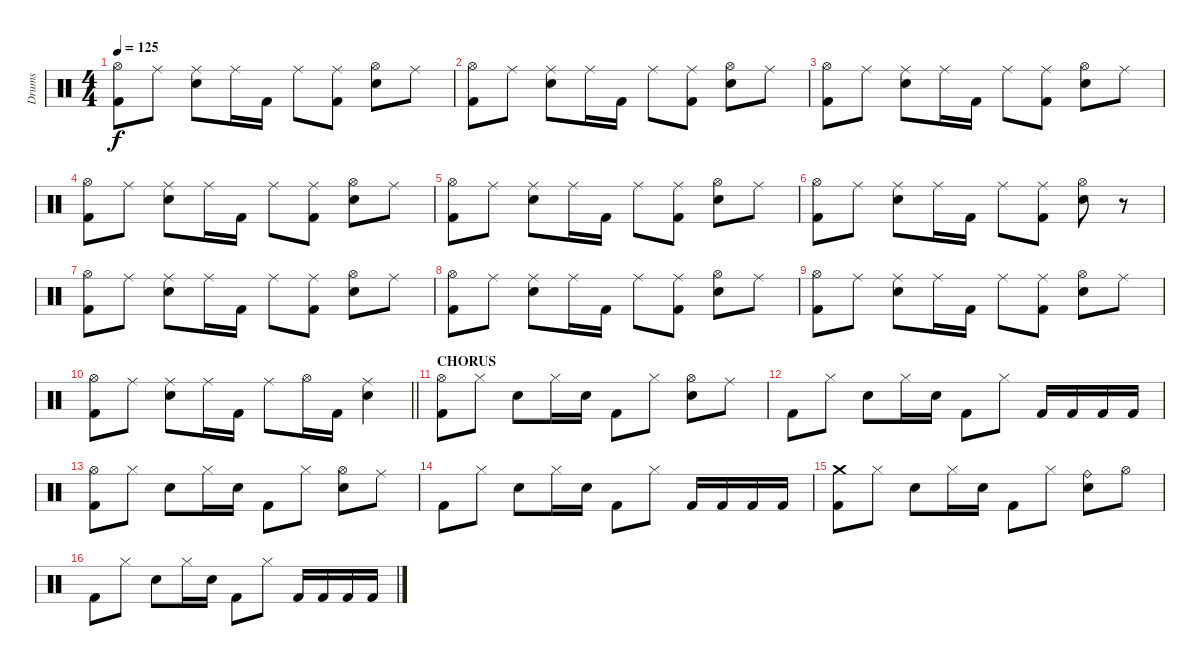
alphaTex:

\track ("Drums" "Drums") {instrument percussion}
\staff {score}
\articulation defaults
\ts (4 4)
\tempo 125
\clef neutral
\ks c
("Hi-Hat (open)" "Kick (hit) 2").8{dy f} "Ride (middle)".8 ("Ride (middle)" "Snare (hit) 2").8 "Ride (middle)".16 "Kick (hit) 2".16 "Ride (middle)".8 ("Ride (middle)" "Kick (hit) 2").8 ("Hi-Hat (open)" "Snare (hit) 2").8 "Ride (middle)".8 |
("Hi-Hat (open)" "Kick (hit) 2").8 "Ride (middle)".8 ("Ride (middle)" "Snare (hit) 2").8 "Ride (middle)".16 "Kick (hit) 2".16 "Ride (middle)".8 ("Ride (middle)" "Kick (hit) 2").8 ("Hi-Hat (open)" "Snare (hit) 2").8 "Ride (middle)".8 |
("Hi-Hat (open)" "Kick (hit) 2").8 "Ride (middle)".8 ("Ride (middle)" "Snare (hit) 2").8 "Ride (middle)".16 "Kick (hit) 2".16 "Ride (middle)".8 ("Ride (middle)" "Kick (hit) 2").8 ("Hi-Hat (open)" "Snare (hit) 2").8 "Ride (middle)".8 |
("Hi-Hat (open)" "Kick (hit) 2").8 "Ride (middle)".8 ("Ride (middle)" "Snare (hit) 2").8 "Ride (middle)".16 "Kick (hit) 2".16 "Ride (middle)".8 ("Ride (middle)" "Kick (hit) 2").8 ("Hi-Hat (open)" "Snare (hit) 2").8 "Ride (middle)".8 |
("Hi-Hat (open)" "Kick (hit) 2").8 "Ride (middle)".8 ("Ride (middle)" "Snare (hit) 2").8 "Ride (middle)".16 "Kick (hit) 2".16 "Ride (middle)".8 ("Ride (middle)" "Kick (hit) 2").8 ("Hi-Hat (open)" "Snare (hit) 2").8 "Ride (middle)".8 |
("Hi-Hat (open)" "Kick (hit) 2").8 "Ride (middle)".8 ("Ride (middle)" "Snare (hit) 2").8 "Ride (middle)".16 "Kick (hit) 2".16 "Ride (middle)".8 ("Ride (middle)" "Kick (hit) 2").8 ("Hi-Hat (open)" "Snare (hit) 2").8 r.8 |
("Hi-Hat (open)" "Kick (hit) 2").8 "Ride (middle)".8 ("Ride (middle)" "Snare (hit) 2").8 "Ride (middle)".16 "Kick (hit) 2".16 "Ride (middle)".8 ("Ride (middle)" "Kick (hit) 2").8 ("Hi-Hat (open)" "Snare (hit) 2").8 "Ride (middle)".8 |
("Hi-Hat (open)" "Kick (hit) 2").8 "Ride (middle)".8 ("Ride (middle)" "Snare (hit) 2").8 "Ride (middle)".16 "Kick (hit) 2".16 "Ride (middle)".8 ("Ride (middle)" "Kick (hit) 2").8 ("Hi-Hat (open)" "Snare (hit) 2").8 "Ride (middle)".8 |
("Hi-Hat (open)" "Kick (hit) 2").8 "Ride (middle)".8 ("Ride (middle)" "Snare (hit) 2").8 "Ride (middle)".16 "Kick (hit) 2".16 "Ride (middle)".8 ("Ride (middle)" "Kick (hit) 2").8 ("Hi-Hat (open)" "Snare (hit) 2").8 "Ride (middle)".8 |
\barLineRight lightlight
("Hi-Hat (open)" "Kick (hit) 2").8 "Ride (middle)".8 ("Ride (middle)" "Electric Snare (hit)").8 "Ride (middle)".16 "Kick (hit) 2".16 "Ride (middle)".8 "Hi-Hat (open)".16 "Kick (hit) 2".16 ("Ride (middle)" "Electric Snare (hit)").4 |
\section ("" "CHORUS")
("Hi-Hat (open)" "Kick (hit) 2").8 "Hi-Hat (closed)".8 "Snare (hit) 2".8 "Hi-Hat (closed)".16 "Snare (hit) 2".16 "Kick (hit) 2".8 "Hi-Hat (closed)".8 ("Hi-Hat (open)" "Snare (hit) 2").8 "Ride (middle)".8 |
"Kick (hit) 2".8 "Hi-Hat (closed)".8 "Snare (hit) 2".8 "Hi-Hat (closed)".16 "Snare (hit) 2".16 "Kick (hit) 2".8 "Hi-Hat (closed)".8 "Kick (hit) 2".16 "Kick (hit) 2".16 "Kick (hit) 2".16 "Kick (hit) 2".16 |
("Hi-Hat (open)" "Kick (hit) 2").8 "Hi-Hat (closed)".8 "Snare (hit) 2".8 "Hi-Hat (closed)".16 "Snare (hit) 2".16 "Kick (hit) 2".8 "Hi-Hat (closed)".8 ("Hi-Hat (open)" "Snare (hit) 2").8 "Ride (middle)".8 |
"Kick (hit) 2".8 "Hi-Hat (closed)".8 "Snare (hit) 2".8 "Hi-Hat (closed)".16 "Snare (hit) 2".16 "Kick (hit) 2".8 "Hi-Hat (closed)".8 "Kick (hit) 2".16 "Kick (hit) 2".16 "Kick (hit) 2".16 "Kick (hit) 2".16 |
("Crash medium (hit)" "Kick (hit) 2").8 "Hi-Hat (closed)".8 "Electric Snare (hit)".8 "Hi-Hat (closed)".16 "Electric Snare (hit)".16 "Kick (hit) 2".8 "Hi-Hat (closed)".8 ("Ride (bell)" "Electric Snare (hit)").8 "Hi-Hat (open)".8 |
"Kick (hit) 2".8 "Hi-Hat (closed)".8 "Electric Snare (hit)".8 "Hi-Hat (closed)".16 "Electric Snare (hit)".16 "Kick (hit) 2".8 "Hi-Hat (closed)".8 "Kick (hit) 2".16 "Kick (hit) 2".16 "Kick (hit) 2".16 "Kick (hit) 2".16
